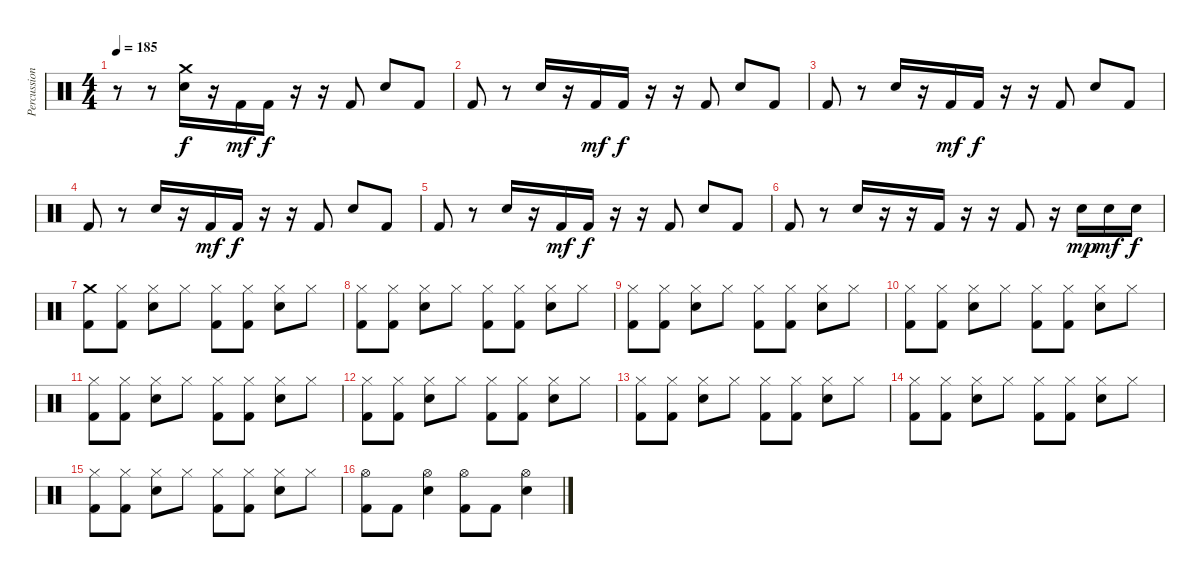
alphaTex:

\track ("Percussions" "Percussion") {instrument percussion}
\staff {score}
\articulation defaults
\ts (4 4)
\tempo 185
\clef neutral
\ks c
r.8{dy f} r.8 ("Crash medium (hit)" "Electric Snare (hit)").16 r.16 "Kick (hit) 2".16{dy mf} "Kick (hit) 2".16{dy f} r.16 r.16 "Kick (hit) 2".8 "Electric Snare (hit)".8 "Kick (hit) 2".8 |
"Kick (hit) 2".8 r.8 "Electric Snare (hit)".16 r.16 "Kick (hit) 2".16{dy mf} "Kick (hit) 2".16{dy f} r.16 r.16 "Kick (hit) 2".8 "Electric Snare (hit)".8 "Kick (hit) 2".8 |
"Kick (hit) 2".8 r.8 "Electric Snare (hit)".16 r.16 "Kick (hit) 2".16{dy mf} "Kick (hit) 2".16{dy f} r.16 r.16 "Kick (hit) 2".8 "Electric Snare (hit)".8 "Kick (hit) 2".8 |
"Kick (hit) 2".8 r.8 "Electric Snare (hit)".16 r.16 "Kick (hit) 2".16{dy mf} "Kick (hit) 2".16{dy f} r.16 r.16 "Kick (hit) 2".8 "Electric Snare (hit)".8 "Kick (hit) 2".8 |
"Kick (hit) 2".8 r.8 "Electric Snare (hit)".16 r.16 "Kick (hit) 2".16{dy mf} "Kick (hit) 2".16{dy f} r.16 r.16 "Kick (hit) 2".8 "Electric Snare (hit)".8 "Kick (hit) 2".8 |
"Kick (hit) 2".8 r.8 "Electric Snare (hit)".16 r.16 r.16 "Kick (hit) 2".16 r.16 r.16 "Kick (hit) 2".8 r.16 "Electric Snare (hit)".16{dy mp} "Electric Snare (hit)".16{dy mf} "Electric Snare (hit)".16{dy f} |
("Crash medium (hit)" "Kick (hit) 2").8 ("Hi-Hat (closed)" "Kick (hit) 2").8 ("Hi-Hat (closed)" "Electric Snare (hit)").8 "Hi-Hat (closed)".8 ("Hi-Hat (closed)" "Kick (hit) 2").8 ("Hi-Hat (closed)" "Kick (hit) 2").8 ("Hi-Hat (closed)" "Electric Snare (hit)").8 "Hi-Hat (closed)".8 |
("Hi-Hat (closed)" "Kick (hit) 2").8 ("Hi-Hat (closed)" "Kick (hit) 2").8 ("Hi-Hat (closed)" "Electric Snare (hit)").8 "Hi-Hat (closed)".8 ("Hi-Hat (closed)" "Kick (hit) 2").8 ("Hi-Hat (closed)" "Kick (hit) 2").8 ("Hi-Hat (closed)" "Electric Snare (hit)").8 "Hi-Hat (closed)".8 |
("Hi-Hat (closed)" "Kick (hit) 2").8 ("Hi-Hat (closed)" "Kick (hit) 2").8 ("Hi-Hat (closed)" "Electric Snare (hit)").8 "Hi-Hat (closed)".8 ("Hi-Hat (closed)" "Kick (hit) 2").8 ("Hi-Hat (closed)" "Kick (hit) 2").8 ("Hi-Hat (closed)" "Electric Snare (hit)").8 "Hi-Hat (closed)".8 |
("Hi-Hat (closed)" "Kick (hit) 2").8 ("Hi-Hat (closed)" "Kick (hit) 2").8 ("Hi-Hat (closed)" "Electric Snare (hit)").8 "Hi-Hat (closed)".8 ("Hi-Hat (closed)" "Kick (hit) 2").8 ("Hi-Hat (closed)" "Kick (hit) 2").8 ("Hi-Hat (closed)" "Electric Snare (hit)").8 "Hi-Hat (closed)".8 |
("Hi-Hat (closed)" "Kick (hit) 2").8 ("Hi-Hat (closed)" "Kick (hit) 2").8 ("Hi-Hat (closed)" "Electric Snare (hit)").8 "Hi-Hat (closed)".8 ("Hi-Hat (closed)" "Kick (hit) 2").8 ("Hi-Hat (closed)" "Kick (hit) 2").8 ("Hi-Hat (closed)" "Electric Snare (hit)").8 "Hi-Hat (closed)".8 |
("Hi-Hat (closed)" "Kick (hit) 2").8 ("Hi-Hat (closed)" "Kick (hit) 2").8 ("Hi-Hat (closed)" "Electric Snare (hit)").8 "Hi-Hat (closed)".8 ("Hi-Hat (closed)" "Kick (hit) 2").8 ("Hi-Hat (closed)" "Kick (hit) 2").8 ("Hi-Hat (closed)" "Electric Snare (hit)").8 "Hi-Hat (closed)".8 |
("Hi-Hat (closed)" "Kick (hit) 2").8 ("Hi-Hat (closed)" "Kick (hit) 2").8 ("Hi-Hat (closed)" "Electric Snare (hit)").8 "Hi-Hat (closed)".8 ("Hi-Hat (closed)" "Kick (hit) 2").8 ("Hi-Hat (closed)" "Kick (hit) 2").8 ("Hi-Hat (closed)" "Electric Snare (hit)").8 "Hi-Hat (closed)".8 |
("Hi-Hat (closed)" "Kick (hit) 2").8 ("Hi-Hat (closed)" "Kick (hit) 2").8 ("Hi-Hat (closed)" "Electric Snare (hit)").8 "Hi-Hat (closed)".8 ("Hi-Hat (closed)" "Kick (hit) 2").8 ("Hi-Hat (closed)" "Kick (hit) 2").8 ("Hi-Hat (closed)" "Electric Snare (hit)").8 "Hi-Hat (closed)".8 |
("Hi-Hat (closed)" "Kick (hit) 2").8 ("Hi-Hat (closed)" "Kick (hit) 2").8 ("Hi-Hat (closed)" "Electric Snare (hit)").8 "Hi-Hat (closed)".8 ("Hi-Hat (closed)" "Kick (hit) 2").8 ("Hi-Hat (closed)" "Kick (hit) 2").8 ("Hi-Hat (closed)" "Electric Snare (hit)").8 "Hi-Hat (closed)".8 |
("Hi-Hat (open)" "Kick (hit) 2").8 "Kick (hit) 2".8 ("Hi-Hat (open)" "Electric Snare (hit)").4 ("Hi-Hat (open)" "Kick (hit) 2").8 "Kick (hit) 2".8 ("Hi-Hat (open)" "Electric Snare (hit)").4
